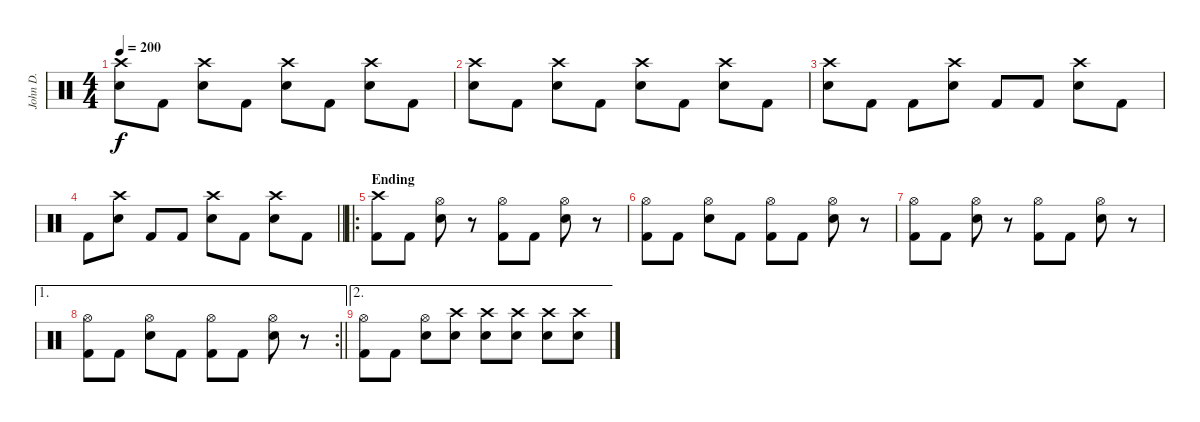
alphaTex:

\track ("John D." "John D.") {instrument percussion}
\staff {score}
\articulation defaults
\ts (4 4)
\tempo 200
\clef neutral
\ks c
("Crash high (hit)" "Snare (hit) 2").8{dy f} "Kick (hit) 2".8 ("Crash high (hit)" "Snare (hit) 2").8 "Kick (hit) 2".8 ("Crash high (hit)" "Snare (hit) 2").8 "Kick (hit) 2".8 ("Crash high (hit)" "Snare (hit) 2").8 "Kick (hit) 2".8 |
("Crash high (hit)" "Snare (hit) 2").8 "Kick (hit) 2".8 ("Crash high (hit)" "Snare (hit) 2").8 "Kick (hit) 2".8 ("Crash high (hit)" "Snare (hit) 2").8 "Kick (hit) 2".8 ("Crash high (hit)" "Snare (hit) 2").8 "Kick (hit) 2".8 |
("Crash high (hit)" "Snare (hit) 2").8 "Kick (hit) 2".8 "Kick (hit) 2".8 ("Crash high (hit)" "Snare (hit) 2").8 "Kick (hit) 2".8 "Kick (hit) 2".8 ("Crash high (hit)" "Snare (hit) 2").8 "Kick (hit) 2".8 |
\barLineRight lightlight "Kick (hit) 2".8
("Crash high (hit)" "Snare (hit) 2").8 "Kick (hit) 2".8 "Kick (hit) 2".8 ("Crash high (hit)" "Snare (hit) 2").8 "Kick (hit) 2".8 ("Crash high (hit)" "Snare (hit) 2").8 "Kick (hit) 2".8 |
\ro
\section ("" "Ending")
("Crash high (hit)" "Kick (hit) 2").8 "Kick (hit) 2".8 ("Hi-Hat (open)" "Snare (hit) 2").8 r.8 ("Hi-Hat (open)" "Kick (hit) 2").8 "Kick (hit) 2".8 ("Hi-Hat (open)" "Snare (hit) 2").8 r.8 |
("Hi-Hat (open)" "Kick (hit) 2").8 "Kick (hit) 2".8 ("Hi-Hat (open)" "Snare (hit) 2").8 "Kick (hit) 2".8 ("Hi-Hat (open)" "Kick (hit) 2").8 "Kick (hit) 2".8 ("Hi-Hat (open)" "Snare (hit) 2").8 r.8 |
("Hi-Hat (open)" "Kick (hit) 2").8 "Kick (hit) 2".8 ("Hi-Hat (open)" "Snare (hit) 2").8 r.8 ("Hi-Hat (open)" "Kick (hit) 2").8 "Kick (hit) 2".8 ("Hi-Hat (open)" "Snare (hit) 2").8 r.8 |
\ae 1
\rc 2
\barLineRight lightlight
("Hi-Hat (open)" "Kick (hit) 2").8 "Kick (hit) 2".8 ("Hi-Hat (open)" "Snare (hit) 2").8 "Kick (hit) 2".8 ("Hi-Hat (open)" "Kick (hit) 2").8 "Kick (hit) 2".8 ("Hi-Hat (open)" "Snare (hit) 2").8 r.8 |
\ae 2
("Hi-Hat (open)" "Kick (hit) 2").8 "Kick (hit) 2".8 ("Hi-Hat (open)" "Snare (hit) 2").8 ("Crash high (hit)" "Snare (hit) 2").8 ("Crash high (hit)" "Snare (hit) 2").8 ("Crash high (hit)" "Snare (hit) 2").8 ("Crash high (hit)" "Snare (hit) 2").8 ("Crash high (hit)" "Snare (hit) 2").8
